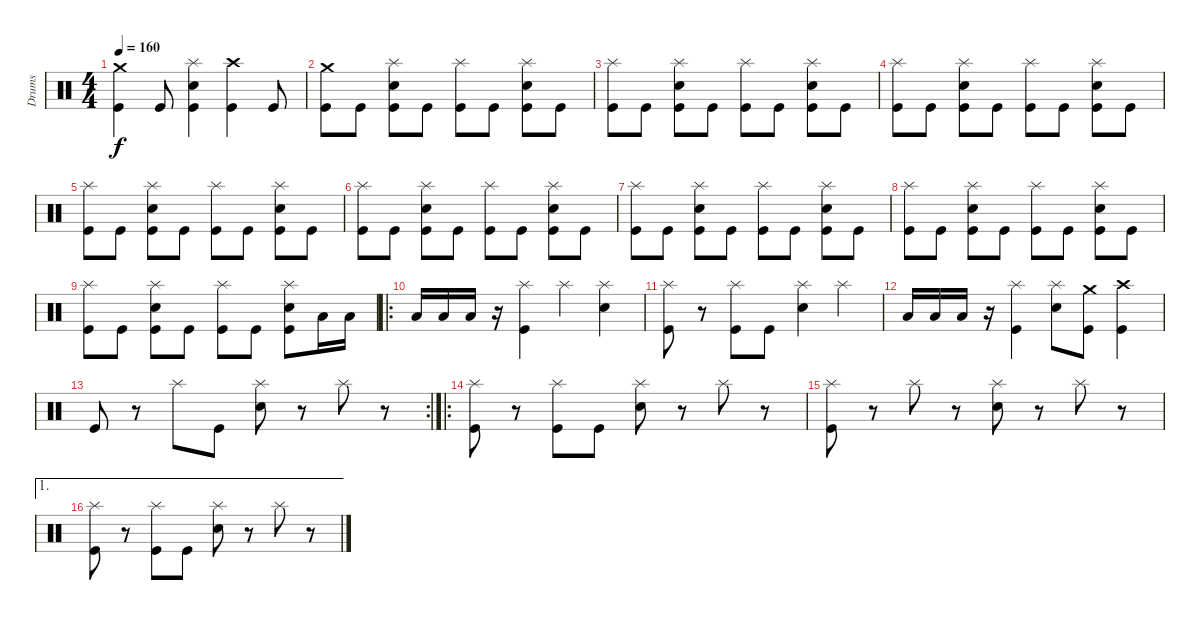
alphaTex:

\track ("Drums" "Drums") {instrument percussion}
\staff {score}
\articulation defaults
\ts (4 4)
\tempo 160
\clef neutral
\ks c
("Kick (hit)" "Crash medium (hit)").4{dy f} "Kick (hit)".8 ("Kick (hit)" "Electric Snare (hit)" "Splash (hit)").4 ("Kick (hit)" "Crash high (hit)").4 "Kick (hit)".8 |
("Kick (hit)" "Crash medium (hit)").8 "Kick (hit)".8 ("Kick (hit)" "Electric Snare (hit)" "Splash (hit)").8 "Kick (hit)".8 ("Kick (hit)" "Splash (hit)").8 "Kick (hit)".8 ("Kick (hit)" "Electric Snare (hit)" "Splash (hit)").8 "Kick (hit)".8 |
("Kick (hit)" "Splash (hit)").8 "Kick (hit)".8 ("Kick (hit)" "Electric Snare (hit)" "Splash (hit)").8 "Kick (hit)".8 ("Kick (hit)" "Splash (hit)").8 "Kick (hit)".8 ("Kick (hit)" "Electric Snare (hit)" "Splash (hit)").8 "Kick (hit)".8 |
("Kick (hit)" "Splash (hit)").8 "Kick (hit)".8 ("Kick (hit)" "Electric Snare (hit)" "Splash (hit)").8 "Kick (hit)".8 ("Kick (hit)" "Splash (hit)").8 "Kick (hit)".8 ("Kick (hit)" "Electric Snare (hit)" "Splash (hit)").8 "Kick (hit)".8 |
("Kick (hit)" "Splash (hit)").8 "Kick (hit)".8 ("Kick (hit)" "Electric Snare (hit)" "Splash (hit)").8 "Kick (hit)".8 ("Kick (hit)" "Splash (hit)").8 "Kick (hit)".8 ("Kick (hit)" "Electric Snare (hit)" "Splash (hit)").8 "Kick (hit)".8 |
("Kick (hit)" "Splash (hit)").8 "Kick (hit)".8 ("Kick (hit)" "Electric Snare (hit)" "Splash (hit)").8 "Kick (hit)".8 ("Kick (hit)" "Splash (hit)").8 "Kick (hit)".8 ("Kick (hit)" "Electric Snare (hit)" "Splash (hit)").8 "Kick (hit)".8 |
("Kick (hit)" "Splash (hit)").8 "Kick (hit)".8 ("Kick (hit)" "Electric Snare (hit)" "Splash (hit)").8 "Kick (hit)".8 ("Kick (hit)" "Splash (hit)").8 "Kick (hit)".8 ("Kick (hit)" "Electric Snare (hit)" "Splash (hit)").8 "Kick (hit)".8 |
("Kick (hit)" "Splash (hit)").8 "Kick (hit)".8 ("Kick (hit)" "Electric Snare (hit)" "Splash (hit)").8 "Kick (hit)".8 ("Kick (hit)" "Splash (hit)").8 "Kick (hit)".8 ("Kick (hit)" "Electric Snare (hit)" "Splash (hit)").8 "Kick (hit)".8 |
("Kick (hit)" "Splash (hit)").8 "Kick (hit)".8 ("Kick (hit)" "Electric Snare (hit)" "Splash (hit)").8 "Kick (hit)".8 ("Kick (hit)" "Splash (hit)").8 "Kick (hit)".8 ("Kick (hit)" "Electric Snare (hit)" "Splash (hit)").8 "Low Floor Tom (hit)".16 "Low Floor Tom (hit)".16 |
\ro "Low Floor Tom (hit)".16 "Low Floor Tom (hit)".16 "Low Floor Tom (hit)".16
r.16 ("Kick (hit)" "Splash (hit)").4 "Splash (hit)".4 ("Electric Snare (hit)" "Splash (hit)").4 |
("Kick (hit)" "Splash (hit)").8 r.8 ("Kick (hit)" "Splash (hit)").8 "Kick (hit)".8 ("Electric Snare (hit)" "Splash (hit)").4 "Splash (hit)".4 |
"Low Floor Tom (hit)".16 "Low Floor Tom (hit)".16 "Low Floor Tom (hit)".16 r.16 ("Kick (hit)" "Splash (hit)").4 ("Electric Snare (hit)" "Splash (hit)").8 ("Kick (hit)" "Crash medium (hit)").8 ("Kick (hit)" "Crash high (hit)").4 |
\rc 2 "Kick (hit)".8
r.8 "Splash (hit)".8 "Kick (hit)".8 ("Electric Snare (hit)" "Splash (hit)").8 r.8 "Splash (hit)".8 r.8 |
\ro
("Kick (hit)" "Splash (hit)").8 r.8 ("Kick (hit)" "Splash (hit)").8 "Kick (hit)".8 ("Electric Snare (hit)" "Splash (hit)").8 r.8 "Splash (hit)".8 r.8 |
("Kick (hit)" "Splash (hit)").8 r.8 "Splash (hit)".8 r.8 ("Electric Snare (hit)" "Splash (hit)").8 r.8 "Splash (hit)".8 r.8 |
\ae 1
("Kick (hit)" "Splash (hit)").8 r.8 ("Kick (hit)" "Splash (hit)").8 "Kick (hit)".8 ("Electric Snare (hit)" "Splash (hit)").8 r.8 "Splash (hit)".8 r.8
